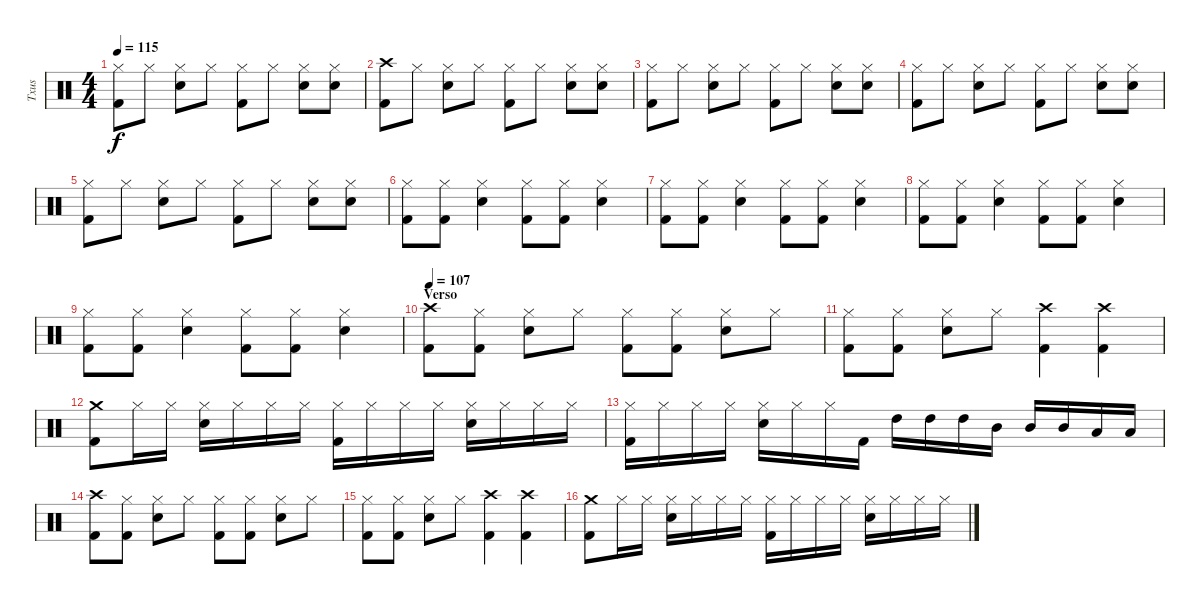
\track ("Txus" "Txus") {instrument percussion}
\staff {score}
\articulation defaults
\ts (4 4)
\tempo 115
\clef neutral
\ks c
("Kick (hit) 2" "Hi-Hat (closed)").8{dy f} "Hi-Hat (closed)".8 ("Electric Snare (hit)" "Hi-Hat (closed)").8 "Hi-Hat (closed)".8 ("Kick (hit) 2" "Hi-Hat (closed)").8 "Hi-Hat (closed)".8 ("Electric Snare (hit)" "Hi-Hat (closed)").8 ("Electric Snare (hit)" "Hi-Hat (closed)").8 |
("Kick (hit) 2" "Crash high (hit)").8 "Hi-Hat (closed)".8 ("Electric Snare (hit)" "Hi-Hat (closed)").8 "Hi-Hat (closed)".8 ("Kick (hit) 2" "Hi-Hat (closed)").8 "Hi-Hat (closed)".8 ("Electric Snare (hit)" "Hi-Hat (closed)").8 ("Electric Snare (hit)" "Hi-Hat (closed)").8 |
("Kick (hit) 2" "Hi-Hat (closed)").8 "Hi-Hat (closed)".8 ("Electric Snare (hit)" "Hi-Hat (closed)").8 "Hi-Hat (closed)".8 ("Kick (hit) 2" "Hi-Hat (closed)").8 "Hi-Hat (closed)".8 ("Electric Snare (hit)" "Hi-Hat (closed)").8 ("Electric Snare (hit)" "Hi-Hat (closed)").8 |
("Kick (hit) 2" "Hi-Hat (closed)").8 "Hi-Hat (closed)".8 ("Electric Snare (hit)" "Hi-Hat (closed)").8 "Hi-Hat (closed)".8 ("Kick (hit) 2" "Hi-Hat (closed)").8 "Hi-Hat (closed)".8 ("Electric Snare (hit)" "Hi-Hat (closed)").8 ("Electric Snare (hit)" "Hi-Hat (closed)").8 |
("Kick (hit) 2" "Hi-Hat (closed)").8 "Hi-Hat (closed)".8 ("Electric Snare (hit)" "Hi-Hat (closed)").8 "Hi-Hat (closed)".8 ("Kick (hit) 2" "Hi-Hat (closed)").8 "Hi-Hat (closed)".8 ("Electric Snare (hit)" "Hi-Hat (closed)").8 ("Electric Snare (hit)" "Hi-Hat (closed)").8 |
("Kick (hit) 2" "Hi-Hat (closed)").8 ("Kick (hit) 2" "Hi-Hat (closed)").8 ("Electric Snare (hit)" "Hi-Hat (closed)").4 ("Kick (hit) 2" "Hi-Hat (closed)").8 ("Kick (hit) 2" "Hi-Hat (closed)").8 ("Electric Snare (hit)" "Hi-Hat (closed)").4 |
("Kick (hit) 2" "Hi-Hat (closed)").8 ("Kick (hit) 2" "Hi-Hat (closed)").8 ("Electric Snare (hit)" "Hi-Hat (closed)").4 ("Kick (hit) 2" "Hi-Hat (closed)").8 ("Kick (hit) 2" "Hi-Hat (closed)").8 ("Electric Snare (hit)" "Hi-Hat (closed)").4 |
("Kick (hit) 2" "Hi-Hat (closed)").8 ("Kick (hit) 2" "Hi-Hat (closed)").8 ("Electric Snare (hit)" "Hi-Hat (closed)").4 ("Kick (hit) 2" "Hi-Hat (closed)").8 ("Kick (hit) 2" "Hi-Hat (closed)").8 ("Electric Snare (hit)" "Hi-Hat (closed)").4 |
("Kick (hit) 2" "Hi-Hat (closed)").8 ("Kick (hit) 2" "Hi-Hat (closed)").8 ("Electric Snare (hit)" "Hi-Hat (closed)").4 ("Kick (hit) 2" "Hi-Hat (closed)").8 ("Kick (hit) 2" "Hi-Hat (closed)").8 ("Electric Snare (hit)" "Hi-Hat (closed)").4 |
\section ("" "Verso")
\tempo 107
("Kick (hit) 2" "Crash high (hit)").8 ("Kick (hit) 2" "Hi-Hat (closed)").8 ("Electric Snare (hit)" "Hi-Hat (closed)").8 "Hi-Hat (closed)".8 ("Kick (hit) 2" "Hi-Hat (closed)").8 ("Kick (hit) 2" "Hi-Hat (closed)").8 ("Electric Snare (hit)" "Hi-Hat (closed)").8 "Hi-Hat (closed)".8 |
("Kick (hit) 2" "Hi-Hat (closed)").8 ("Kick (hit) 2" "Hi-Hat (closed)").8 ("Electric Snare (hit)" "Hi-Hat (closed)").8 "Hi-Hat (closed)".8 ("Kick (hit) 2" "Crash high (hit)").4 ("Kick (hit) 2" "Crash high (hit)").4 |
("Kick (hit) 2" "Crash medium (hit)").8 "Hi-Hat (closed)".16 "Hi-Hat (closed)".16 ("Electric Snare (hit)" "Hi-Hat (closed)").16 "Hi-Hat (closed)".16 "Hi-Hat (closed)".16 "Hi-Hat (closed)".16 ("Kick (hit) 2" "Hi-Hat (closed)").16 "Hi-Hat (closed)".16 "Hi-Hat (closed)".16 "Hi-Hat (closed)".16 ("Electric Snare (hit)" "Hi-Hat (closed)").16 "Hi-Hat (closed)".16 "Hi-Hat (closed)".16 "Hi-Hat (closed)".16 |
("Kick (hit) 2" "Hi-Hat (closed)").16 "Hi-Hat (closed)".16 "Hi-Hat (closed)".16 "Hi-Hat (closed)".16 ("Electric Snare (hit)" "Hi-Hat (closed)").16 "Hi-Hat (closed)".16 "Hi-Hat (closed)".16 "Kick (hit) 2".16 "High Tom (hit)".16 "High Tom (hit)".16 "High Tom (hit)".16 "Mid Tom (hit)".16 "Mid Tom (hit)".16 "Mid Tom (hit)".16 "Low Tom (hit)".16 "Low Tom (hit)".16 |
("Kick (hit) 2" "Crash high (hit)").8 ("Kick (hit) 2" "Hi-Hat (closed)").8 ("Electric Snare (hit)" "Hi-Hat (closed)").8 "Hi-Hat (closed)".8 ("Kick (hit) 2" "Hi-Hat (closed)").8 ("Kick (hit) 2" "Hi-Hat (closed)").8 ("Electric Snare (hit)" "Hi-Hat (closed)").8 "Hi-Hat (closed)".8 |
("Kick (hit) 2" "Hi-Hat (closed)").8 ("Kick (hit) 2" "Hi-Hat (closed)").8 ("Electric Snare (hit)" "Hi-Hat (closed)").8 "Hi-Hat (closed)".8 ("Kick (hit) 2" "Crash high (hit)").4 ("Kick (hit) 2" "Crash high (hit)").4 |
("Kick (hit) 2" "Crash medium (hit)").8 "Hi-Hat (closed)".16 "Hi-Hat (closed)".16 ("Electric Snare (hit)" "Hi-Hat (closed)").16 "Hi-Hat (closed)".16 "Hi-Hat (closed)".16 "Hi-Hat (closed)".16 ("Kick (hit) 2" "Hi-Hat (closed)").16 "Hi-Hat (closed)".16 "Hi-Hat (closed)".16 "Hi-Hat (closed)".16 ("Electric Snare (hit)" "Hi-Hat (closed)").16 "Hi-Hat (closed)".16 "Hi-Hat (closed)".16 "Hi-Hat (closed)".16
